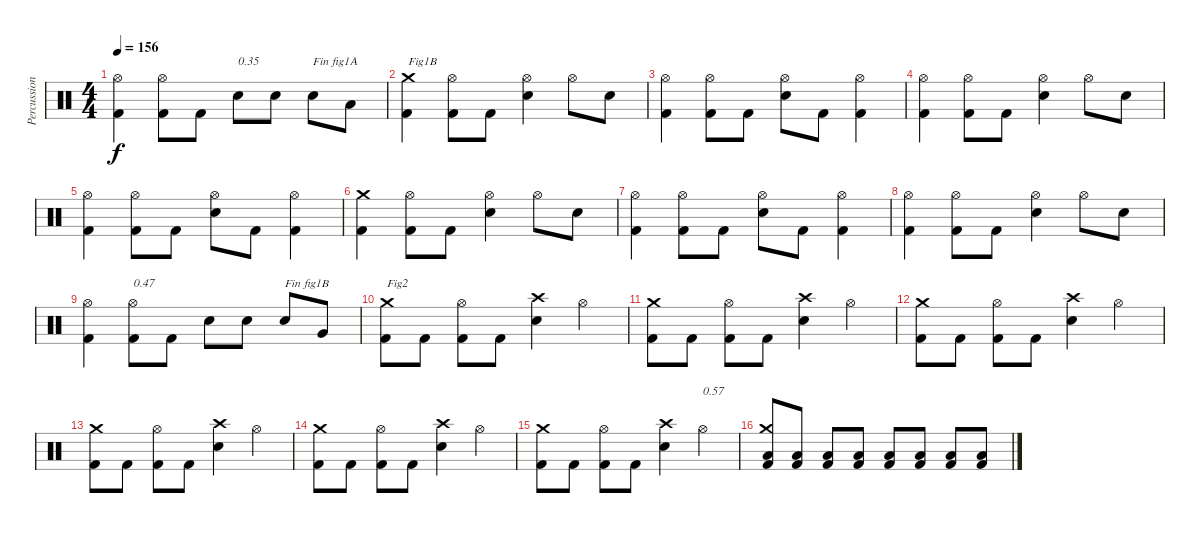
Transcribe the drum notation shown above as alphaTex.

\track ("Percussions" "Percussion") {instrument percussion}
\staff {score}
\articulation defaults
\ts (4 4)
\tempo 156
\clef neutral
\ks c
("Kick (hit) 2" "Hi-Hat (open)").4{dy f} ("Kick (hit) 2" "Hi-Hat (open)").8 "Kick (hit) 2".8 "Electric Snare (hit)".8{txt "0.35"} "Electric Snare (hit)".8 "Electric Snare (hit)".8{txt "Fin fig1A"} "Low Tom (hit)".8 |
("Kick (hit) 2" "Crash medium (hit)").4{txt "Fig1B"} ("Kick (hit) 2" "Hi-Hat (open)").8 "Kick (hit) 2".8 ("Electric Snare (hit)" "Hi-Hat (open)").4 "Hi-Hat (open)".8 "Electric Snare (hit)".8 |
("Kick (hit) 2" "Hi-Hat (open)").4 ("Kick (hit) 2" "Hi-Hat (open)").8 "Kick (hit) 2".8 ("Electric Snare (hit)" "Hi-Hat (open)").8 "Kick (hit) 2".8 ("Kick (hit) 2" "Hi-Hat (open)").4 |
("Kick (hit) 2" "Hi-Hat (open)").4 ("Kick (hit) 2" "Hi-Hat (open)").8 "Kick (hit) 2".8 ("Electric Snare (hit)" "Hi-Hat (open)").4 "Hi-Hat (open)".8 "Electric Snare (hit)".8 |
("Kick (hit) 2" "Hi-Hat (open)").4 ("Kick (hit) 2" "Hi-Hat (open)").8 "Kick (hit) 2".8 ("Electric Snare (hit)" "Hi-Hat (open)").8 "Kick (hit) 2".8 ("Kick (hit) 2" "Hi-Hat (open)").4 |
("Kick (hit) 2" "Crash medium (hit)").4 ("Kick (hit) 2" "Hi-Hat (open)").8 "Kick (hit) 2".8 ("Electric Snare (hit)" "Hi-Hat (open)").4 "Hi-Hat (open)".8 "Electric Snare (hit)".8 |
("Kick (hit) 2" "Hi-Hat (open)").4 ("Kick (hit) 2" "Hi-Hat (open)").8 "Kick (hit) 2".8 ("Electric Snare (hit)" "Hi-Hat (open)").8 "Kick (hit) 2".8 ("Kick (hit) 2" "Hi-Hat (open)").4 |
("Kick (hit) 2" "Hi-Hat (open)").4 ("Kick (hit) 2" "Hi-Hat (open)").8 "Kick (hit) 2".8 ("Electric Snare (hit)" "Hi-Hat (open)").4 "Hi-Hat (open)".8 "Electric Snare (hit)".8 |
("Kick (hit) 2" "Hi-Hat (open)").4 ("Kick (hit) 2" "Hi-Hat (open)").8{txt "0.47"} "Kick (hit) 2".8 "Electric Snare (hit)".8 "Electric Snare (hit)".8 "Electric Snare (hit)".8{txt "Fin fig1B"} "Very Low Tom (hit)".8 |
("Kick (hit) 2" "Crash medium (hit)").8{txt "Fig2"} "Kick (hit) 2".8 ("Kick (hit) 2" "Hi-Hat (open)").8 "Kick (hit) 2".8 ("Electric Snare (hit)" "Crash high (hit)").4 "Hi-Hat (open)".4 |
("Kick (hit) 2" "Crash medium (hit)").8 "Kick (hit) 2".8 ("Kick (hit) 2" "Hi-Hat (open)").8 "Kick (hit) 2".8 ("Electric Snare (hit)" "Crash high (hit)").4 "Hi-Hat (open)".4 |
("Kick (hit) 2" "Crash medium (hit)").8 "Kick (hit) 2".8 ("Kick (hit) 2" "Hi-Hat (open)").8 "Kick (hit) 2".8 ("Electric Snare (hit)" "Crash high (hit)").4 "Hi-Hat (open)".4 |
("Kick (hit) 2" "Crash medium (hit)").8 "Kick (hit) 2".8 ("Kick (hit) 2" "Hi-Hat (open)").8 "Kick (hit) 2".8 ("Electric Snare (hit)" "Crash high (hit)").4 "Hi-Hat (open)".4 |
("Kick (hit) 2" "Crash medium (hit)").8 "Kick (hit) 2".8 ("Kick (hit) 2" "Hi-Hat (open)").8 "Kick (hit) 2".8 ("Electric Snare (hit)" "Crash high (hit)").4 "Hi-Hat (open)".4 |
("Kick (hit) 2" "Crash medium (hit)").8 "Kick (hit) 2".8 ("Kick (hit) 2" "Hi-Hat (open)").8 "Kick (hit) 2".8 ("Electric Snare (hit)" "Crash high (hit)").4 "Hi-Hat (open)".4{txt "0.57"} |
("Kick (hit) 2" "Low Floor Tom (hit)" "Crash medium (hit)").8 ("Kick (hit) 2" "Low Floor Tom (hit)").8 ("Kick (hit) 2" "Low Floor Tom (hit)").8 ("Kick (hit) 2" "Low Floor Tom (hit)").8 ("Kick (hit) 2" "Low Floor Tom (hit)").8 ("Kick (hit) 2" "Low Floor Tom (hit)").8 ("Kick (hit) 2" "Low Floor Tom (hit)").8 ("Kick (hit) 2" "Low Floor Tom (hit)").8
